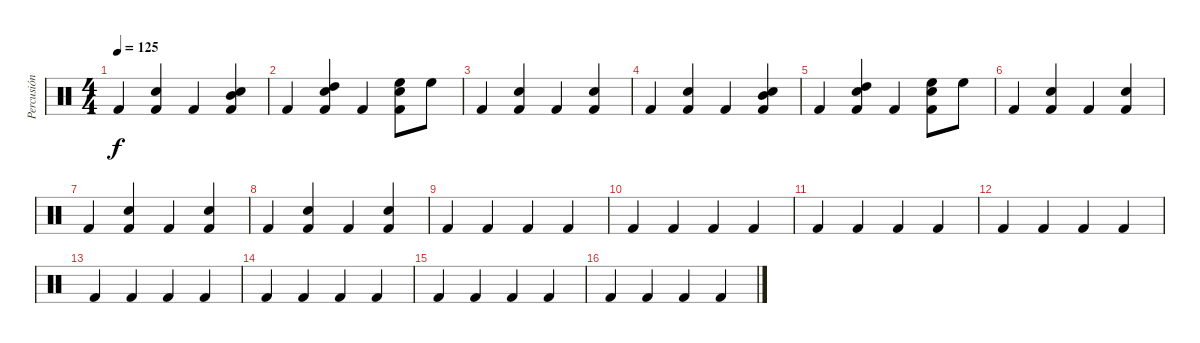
\track ("Percusión" "Percusión") {instrument percussion}
\staff {score}
\articulation defaults
\ts (4 4)
\tempo 125
\clef neutral
\ks c "Kick (hit) 2".4{dy f}
("Snare (hit) 2" "Kick (hit) 2").4 "Kick (hit) 2".4 ("Mid Tom (hit)" "Snare (hit) 2" "Kick (hit) 2").4 |
"Kick (hit) 2".4 ("High Tom (hit)" "Snare (hit) 2" "Kick (hit) 2").4 "Kick (hit) 2".4 ("High Floor Tom (hit)" "Snare (hit) 2" "Kick (hit) 2").8 "High Floor Tom (hit)".8 |
"Kick (hit) 2".4 ("Snare (hit) 2" "Kick (hit) 2").4 "Kick (hit) 2".4 ("Snare (hit) 2" "Kick (hit) 2").4 |
"Kick (hit) 2".4 ("Snare (hit) 2" "Kick (hit) 2").4 "Kick (hit) 2".4 ("Mid Tom (hit)" "Snare (hit) 2" "Kick (hit) 2").4 |
"Kick (hit) 2".4 ("High Tom (hit)" "Snare (hit) 2" "Kick (hit) 2").4 "Kick (hit) 2".4 ("High Floor Tom (hit)" "Snare (hit) 2" "Kick (hit) 2").8 "High Floor Tom (hit)".8 |
"Kick (hit) 2".4 ("Snare (hit) 2" "Kick (hit) 2").4 "Kick (hit) 2".4 ("Snare (hit) 2" "Kick (hit) 2").4 |
"Kick (hit) 2".4 ("Snare (hit) 2" "Kick (hit) 2").4 "Kick (hit) 2".4 ("Snare (hit) 2" "Kick (hit) 2").4 |
"Kick (hit) 2".4 ("Snare (hit) 2" "Kick (hit) 2").4 "Kick (hit) 2".4 ("Snare (hit) 2" "Kick (hit) 2").4 |
"Kick (hit) 2".4 "Kick (hit) 2".4 "Kick (hit) 2".4 "Kick (hit) 2".4 |
"Kick (hit) 2".4 "Kick (hit) 2".4 "Kick (hit) 2".4 "Kick (hit) 2".4 |
"Kick (hit) 2".4 "Kick (hit) 2".4 "Kick (hit) 2".4 "Kick (hit) 2".4 |
"Kick (hit) 2".4 "Kick (hit) 2".4 "Kick (hit) 2".4 "Kick (hit) 2".4 |
"Kick (hit) 2".4 "Kick (hit) 2".4 "Kick (hit) 2".4 "Kick (hit) 2".4 |
"Kick (hit) 2".4 "Kick (hit) 2".4 "Kick (hit) 2".4 "Kick (hit) 2".4 |
"Kick (hit) 2".4 "Kick (hit) 2".4 "Kick (hit) 2".4 "Kick (hit) 2".4 |
"Kick (hit) 2".4 "Kick (hit) 2".4 "Kick (hit) 2".4 "Kick (hit) 2".4
